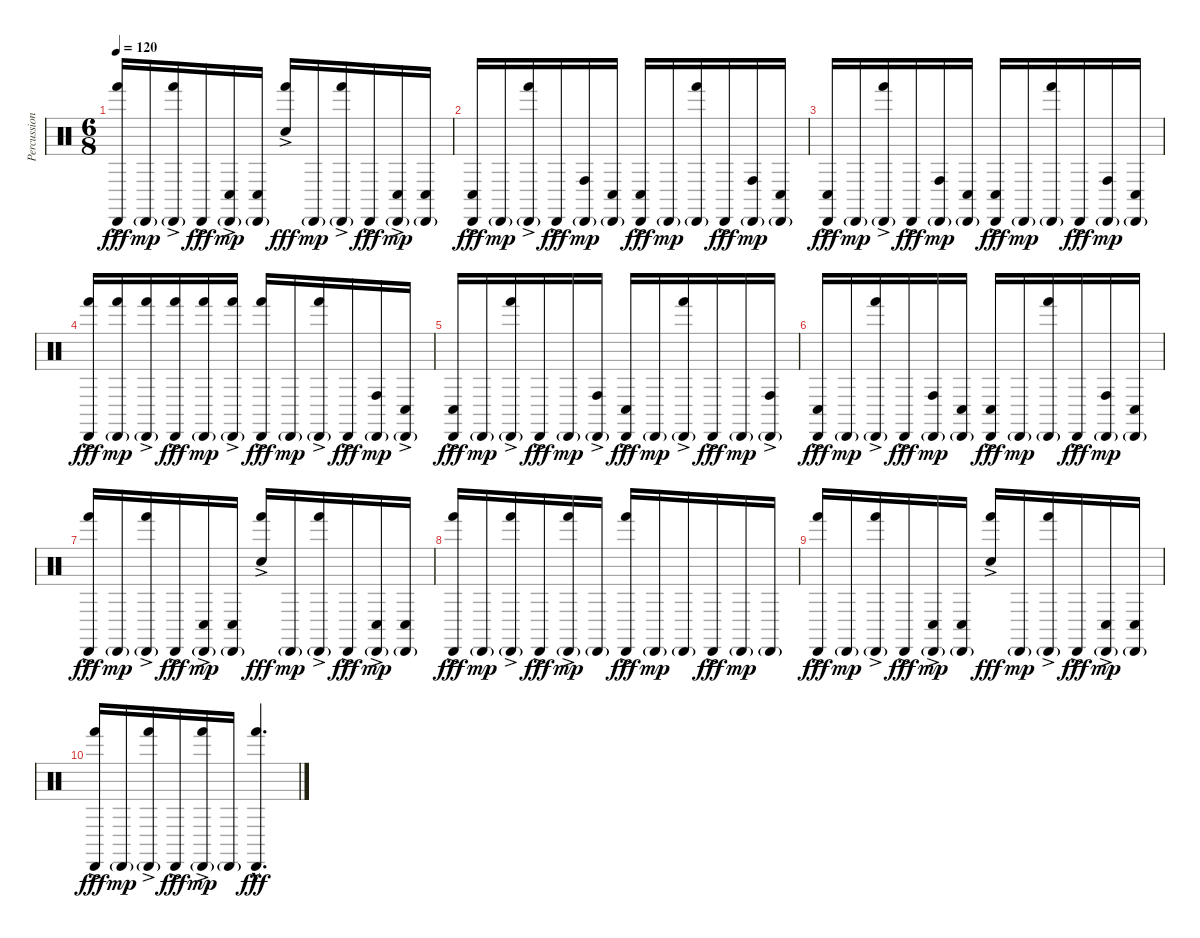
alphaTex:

\track ("Percussion" "Percussion") {instrument percussion}
\staff {score}
\articulation defaults
\ts (6 8)
\tempo 120
\clef neutral
\ks c
("Hand (hit)"{ac} "Cabasa (hit)"{ac}).16{dy fff} "Cabasa (hit)"{g}.16{dy mp} ("Hand (hit)"{ac} "Cabasa (hit)"{g}).16 "Cabasa (hit)"{ac}.16{dy fff} ("Conga low (hit)"{ac} "Cabasa (hit)"{g}).16{dy mp} ("Conga low (hit)" "Cabasa (hit)"{g}).16 ("Hand (hit)"{ac} "Snare (hit)"{ac}).16{dy fff} "Cabasa (hit)"{g}.16{dy mp} ("Hand (hit)"{ac} "Cabasa (hit)"{g}).16 "Cabasa (hit)"{ac}.16{dy fff} ("Conga low (hit)"{ac} "Cabasa (hit)"{g}).16{dy mp} ("Conga low (hit)" "Cabasa (hit)"{g}).16 |
("Conga low (hit)"{ac} "Cabasa (hit)"{ac}).16{dy fff} "Cabasa (hit)"{g}.16{dy mp} ("Hand (hit)"{ac} "Cabasa (hit)"{g}).16 "Cabasa (hit)"{ac}.16{dy fff} ("Conga high (hit)" "Cabasa (hit)"{g}).16{dy mp} ("Conga low (hit)" "Cabasa (hit)"{g}).16 ("Conga low (hit)" "Cabasa (hit)"{ac}).16{dy fff} "Cabasa (hit)"{g}.16{dy mp} ("Hand (hit)" "Cabasa (hit)"{g}).16 "Cabasa (hit)"{ac}.16{dy fff} ("Conga high (hit)" "Cabasa (hit)"{g}).16{dy mp} ("Conga low (hit)" "Cabasa (hit)"{g}).16 |
("Conga low (hit)"{ac} "Cabasa (hit)"{ac}).16{dy fff} "Cabasa (hit)"{g}.16{dy mp} ("Hand (hit)"{ac} "Cabasa (hit)"{g}).16 "Cabasa (hit)"{ac}.16{dy fff} ("Conga high (hit)" "Cabasa (hit)"{g}).16{dy mp} ("Conga low (hit)" "Cabasa (hit)"{g}).16 ("Conga low (hit)" "Cabasa (hit)"{ac}).16{dy fff} "Cabasa (hit)"{g}.16{dy mp} ("Hand (hit)" "Cabasa (hit)"{g}).16 "Cabasa (hit)"{ac}.16{dy fff} ("Conga high (hit)" "Cabasa (hit)"{g}).16{dy mp} ("Conga low (hit)" "Cabasa (hit)"{g}).16 |
("Hand (hit)"{ac} "Cabasa (hit)"{ac}).16{dy fff} ("Hand (hit)" "Cabasa (hit)"{g}).16{dy mp} ("Hand (hit)"{ac} "Cabasa (hit)"{g}).16 ("Hand (hit)" "Cabasa (hit)"{ac}).16{dy fff} ("Hand (hit)" "Cabasa (hit)"{g}).16{dy mp} ("Hand (hit)"{ac} "Cabasa (hit)"{g}).16 ("Hand (hit)"{ac} "Cabasa (hit)"{ac}).16{dy fff} "Cabasa (hit)"{g}.16{dy mp} ("Hand (hit)"{ac} "Cabasa (hit)"{g}).16 "Cabasa (hit)"{ac}.16{dy fff} ("Conga high (hit)" "Cabasa (hit)"{g}).16{dy mp} ("Conga low (hit)"{ac} "Cabasa (hit)"{g}).16 |
("Conga low (hit)"{ac} "Cabasa (hit)"{ac}).16{dy fff} "Cabasa (hit)"{g}.16{dy mp} ("Hand (hit)"{ac} "Cabasa (hit)"{g}).16 "Cabasa (hit)"{ac}.16{dy fff} "Cabasa (hit)"{g}.16{dy mp} ("Conga high (hit)"{ac} "Cabasa (hit)"{g}).16 ("Conga low (hit)"{ac} "Cabasa (hit)"{ac}).16{dy fff} "Cabasa (hit)"{g}.16{dy mp} ("Hand (hit)"{ac} "Cabasa (hit)"{g}).16 "Cabasa (hit)"{ac}.16{dy fff} "Cabasa (hit)"{g}.16{dy mp} ("Conga high (hit)"{ac} "Cabasa (hit)"{g}).16 |
("Conga low (hit)"{ac} "Cabasa (hit)"{ac}).16{dy fff} "Cabasa (hit)"{g}.16{dy mp} ("Hand (hit)"{ac} "Cabasa (hit)"{g}).16 "Cabasa (hit)"{ac}.16{dy fff} ("Conga high (hit)" "Cabasa (hit)"{g}).16{dy mp} ("Conga low (hit)" "Cabasa (hit)"{g}).16 ("Conga low (hit)" "Cabasa (hit)"{ac}).16{dy fff} "Cabasa (hit)"{g}.16{dy mp} ("Hand (hit)" "Cabasa (hit)"{g}).16 "Cabasa (hit)"{ac}.16{dy fff} ("Conga high (hit)" "Cabasa (hit)"{g}).16{dy mp} ("Conga low (hit)" "Cabasa (hit)"{g}).16 |
("Hand (hit)"{ac} "Cabasa (hit)"{ac}).16{dy fff} "Cabasa (hit)"{g}.16{dy mp} ("Hand (hit)"{ac} "Cabasa (hit)"{g}).16 "Cabasa (hit)"{ac}.16{dy fff} ("Conga low (hit)"{ac} "Cabasa (hit)"{g}).16{dy mp} ("Conga low (hit)" "Cabasa (hit)"{g}).16 ("Hand (hit)"{ac} "Snare (hit)"{ac}).16{dy fff} "Cabasa (hit)"{g}.16{dy mp} ("Hand (hit)"{ac} "Cabasa (hit)"{g}).16 "Cabasa (hit)"{ac}.16{dy fff} ("Conga low (hit)"{ac} "Cabasa (hit)"{g}).16{dy mp} ("Conga low (hit)" "Cabasa (hit)"{g}).16 |
("Hand (hit)"{ac} "Cabasa (hit)"{ac}).16{dy fff} "Cabasa (hit)"{g}.16{dy mp} ("Hand (hit)"{ac} "Cabasa (hit)"{g}).16 "Cabasa (hit)"{ac}.16{dy fff} ("Hand (hit)"{ac} "Cabasa (hit)"{g}).16{dy mp} "Cabasa (hit)"{g}.16 ("Hand (hit)"{ac} "Cabasa (hit)"{ac}).16{dy fff} "Cabasa (hit)"{g}.16{dy mp} "Cabasa (hit)"{g}.16 "Cabasa (hit)"{ac}.16{dy fff} "Cabasa (hit)"{g}.16{dy mp} "Cabasa (hit)"{g}.16 |
("Hand (hit)"{ac} "Cabasa (hit)"{ac}).16{dy fff} "Cabasa (hit)"{g}.16{dy mp} ("Hand (hit)"{ac} "Cabasa (hit)"{g}).16 "Cabasa (hit)"{ac}.16{dy fff} ("Conga low (hit)"{ac} "Cabasa (hit)"{g}).16{dy mp} ("Conga low (hit)" "Cabasa (hit)"{g}).16 ("Hand (hit)"{ac} "Snare (hit)"{ac}).16{dy fff} "Cabasa (hit)"{g}.16{dy mp} ("Hand (hit)"{ac} "Cabasa (hit)"{g}).16 "Cabasa (hit)"{ac}.16{dy fff} ("Conga low (hit)"{ac} "Cabasa (hit)"{g}).16{dy mp} ("Conga low (hit)" "Cabasa (hit)"{g}).16 |
("Hand (hit)"{ac} "Cabasa (hit)"{ac}).16{dy fff} "Cabasa (hit)"{g}.16{dy mp} ("Hand (hit)"{ac} "Cabasa (hit)"{g}).16 "Cabasa (hit)"{ac}.16{dy fff} ("Hand (hit)"{ac} "Cabasa (hit)"{g}).16{dy mp} "Cabasa (hit)"{g}.16 ("Hand (hit)"{hac} "Cabasa (hit)"{hac}).4{d dy fff}
